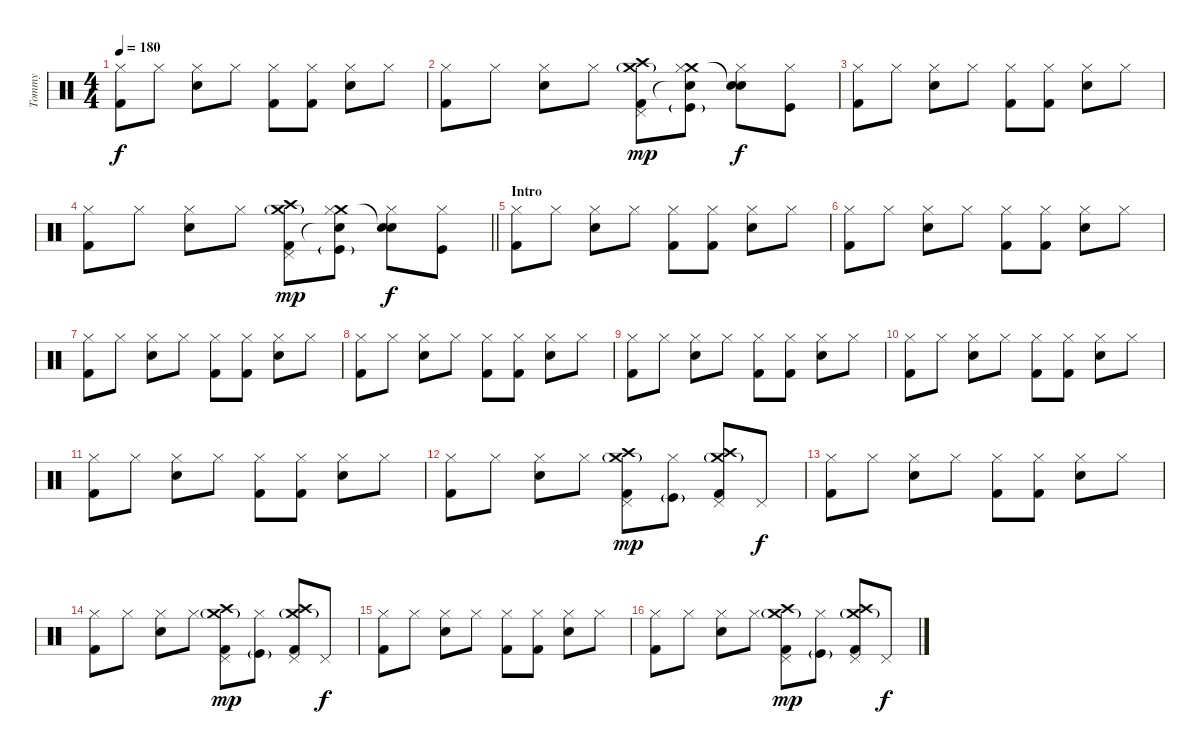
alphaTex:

\track ("Tommy" "Tommy") {instrument percussion}
\staff {score}
\articulation defaults
\ts (4 4)
\tempo 180
\clef neutral
\ks c
("Hi-Hat (closed)" "Kick (hit) 2").8{dy f} "Hi-Hat (closed)".8 ("Hi-Hat (closed)" "Electric Snare (hit)").8 "Hi-Hat (closed)".8 ("Hi-Hat (closed)" "Kick (hit) 2").8 ("Hi-Hat (closed)" "Kick (hit) 2").8 ("Hi-Hat (closed)" "Electric Snare (hit)").8 "Hi-Hat (closed)".8 |
("Hi-Hat (closed)" "Kick (hit) 2").8 "Hi-Hat (closed)".8 ("Hi-Hat (closed)" "Electric Snare (hit)").8 "Hi-Hat (closed)".8 ("Crash medium (hit)"{g} "Crash high (hit)" "Kick (hit) 2" "Pedal Hi-Hat (hit)").8{dy mp} ("Crash medium (hit)" "Hi-Hat (closed)" "Snare (hit)"{t} "Kick (hit)"{g}).8 ("Snare (hit)"{t} "Hi-Hat (closed)" "Electric Snare (hit)").8{dy f} ("Hi-Hat (closed)" "Kick (hit)").8 |
("Hi-Hat (closed)" "Kick (hit) 2").8 "Hi-Hat (closed)".8 ("Hi-Hat (closed)" "Electric Snare (hit)").8 "Hi-Hat (closed)".8 ("Hi-Hat (closed)" "Kick (hit) 2").8 ("Hi-Hat (closed)" "Kick (hit) 2").8 ("Hi-Hat (closed)" "Electric Snare (hit)").8 "Hi-Hat (closed)".8 |
\barLineRight lightlight
("Hi-Hat (closed)" "Kick (hit) 2").8 "Hi-Hat (closed)".8 ("Hi-Hat (closed)" "Electric Snare (hit)").8 "Hi-Hat (closed)".8 ("Crash medium (hit)"{g} "Crash high (hit)" "Kick (hit) 2" "Pedal Hi-Hat (hit)").8{dy mp} ("Crash medium (hit)" "Hi-Hat (closed)" "Snare (hit)"{t} "Kick (hit)"{g}).8 ("Snare (hit)"{t} "Hi-Hat (closed)" "Electric Snare (hit)").8{dy f} ("Hi-Hat (closed)" "Kick (hit)").8 |
\section ("" "Intro")
("Hi-Hat (closed)" "Kick (hit) 2").8 "Hi-Hat (closed)".8 ("Hi-Hat (closed)" "Electric Snare (hit)").8 "Hi-Hat (closed)".8 ("Hi-Hat (closed)" "Kick (hit) 2").8 ("Hi-Hat (closed)" "Kick (hit) 2").8 ("Hi-Hat (closed)" "Electric Snare (hit)").8 "Hi-Hat (closed)".8 |
("Hi-Hat (closed)" "Kick (hit) 2").8 "Hi-Hat (closed)".8 ("Hi-Hat (closed)" "Electric Snare (hit)").8 "Hi-Hat (closed)".8 ("Hi-Hat (closed)" "Kick (hit) 2").8 ("Hi-Hat (closed)" "Kick (hit) 2").8 ("Hi-Hat (closed)" "Electric Snare (hit)").8 "Hi-Hat (closed)".8 |
("Hi-Hat (closed)" "Kick (hit) 2").8 "Hi-Hat (closed)".8 ("Hi-Hat (closed)" "Electric Snare (hit)").8 "Hi-Hat (closed)".8 ("Hi-Hat (closed)" "Kick (hit) 2").8 ("Hi-Hat (closed)" "Kick (hit) 2").8 ("Hi-Hat (closed)" "Electric Snare (hit)").8 "Hi-Hat (closed)".8 |
("Hi-Hat (closed)" "Kick (hit) 2").8 "Hi-Hat (closed)".8 ("Hi-Hat (closed)" "Electric Snare (hit)").8 "Hi-Hat (closed)".8 ("Hi-Hat (closed)" "Kick (hit) 2").8 ("Hi-Hat (closed)" "Kick (hit) 2").8 ("Hi-Hat (closed)" "Electric Snare (hit)").8 "Hi-Hat (closed)".8 |
("Hi-Hat (closed)" "Kick (hit) 2").8 "Hi-Hat (closed)".8 ("Hi-Hat (closed)" "Electric Snare (hit)").8 "Hi-Hat (closed)".8 ("Hi-Hat (closed)" "Kick (hit) 2").8 ("Hi-Hat (closed)" "Kick (hit) 2").8 ("Hi-Hat (closed)" "Electric Snare (hit)").8 "Hi-Hat (closed)".8 |
("Hi-Hat (closed)" "Kick (hit) 2").8 "Hi-Hat (closed)".8 ("Hi-Hat (closed)" "Electric Snare (hit)").8 "Hi-Hat (closed)".8 ("Hi-Hat (closed)" "Kick (hit) 2").8 ("Hi-Hat (closed)" "Kick (hit) 2").8 ("Hi-Hat (closed)" "Electric Snare (hit)").8 "Hi-Hat (closed)".8 |
("Hi-Hat (closed)" "Kick (hit) 2").8 "Hi-Hat (closed)".8 ("Hi-Hat (closed)" "Electric Snare (hit)").8 "Hi-Hat (closed)".8 ("Hi-Hat (closed)" "Kick (hit) 2").8 ("Hi-Hat (closed)" "Kick (hit) 2").8 ("Hi-Hat (closed)" "Electric Snare (hit)").8 "Hi-Hat (closed)".8 |
("Hi-Hat (closed)" "Kick (hit) 2").8 "Hi-Hat (closed)".8 ("Hi-Hat (closed)" "Electric Snare (hit)").8 "Hi-Hat (closed)".8 ("Crash medium (hit)"{g} "Crash high (hit)" "Kick (hit) 2" "Pedal Hi-Hat (hit)").8{dy mp} ("Hi-Hat (closed)" "Kick (hit)"{g}).8 ("Crash medium (hit)"{g} "Crash high (hit)" "Kick (hit) 2" "Pedal Hi-Hat (hit)").8 "Pedal Hi-Hat (hit)".8{dy f} |
("Hi-Hat (closed)" "Kick (hit) 2").8 "Hi-Hat (closed)".8 ("Hi-Hat (closed)" "Electric Snare (hit)").8 "Hi-Hat (closed)".8 ("Hi-Hat (closed)" "Kick (hit) 2").8 ("Hi-Hat (closed)" "Kick (hit) 2").8 ("Hi-Hat (closed)" "Electric Snare (hit)").8 "Hi-Hat (closed)".8 |
("Hi-Hat (closed)" "Kick (hit) 2").8 "Hi-Hat (closed)".8 ("Hi-Hat (closed)" "Electric Snare (hit)").8 "Hi-Hat (closed)".8 ("Crash medium (hit)"{g} "Crash high (hit)" "Kick (hit) 2" "Pedal Hi-Hat (hit)").8{dy mp} ("Hi-Hat (closed)" "Kick (hit)"{g}).8 ("Crash medium (hit)"{g} "Crash high (hit)" "Kick (hit) 2" "Pedal Hi-Hat (hit)").8 "Pedal Hi-Hat (hit)".8{dy f} |
("Hi-Hat (closed)" "Kick (hit) 2").8 "Hi-Hat (closed)".8 ("Hi-Hat (closed)" "Electric Snare (hit)").8 "Hi-Hat (closed)".8 ("Hi-Hat (closed)" "Kick (hit) 2").8 ("Hi-Hat (closed)" "Kick (hit) 2").8 ("Hi-Hat (closed)" "Electric Snare (hit)").8 "Hi-Hat (closed)".8 |
("Hi-Hat (closed)" "Kick (hit) 2").8 "Hi-Hat (closed)".8 ("Hi-Hat (closed)" "Electric Snare (hit)").8 "Hi-Hat (closed)".8 ("Crash medium (hit)"{g} "Crash high (hit)" "Kick (hit) 2" "Pedal Hi-Hat (hit)").8{dy mp} ("Hi-Hat (closed)" "Kick (hit)"{g}).8 ("Crash medium (hit)"{g} "Crash high (hit)" "Kick (hit) 2" "Pedal Hi-Hat (hit)").8 "Pedal Hi-Hat (hit)".8{dy f}
